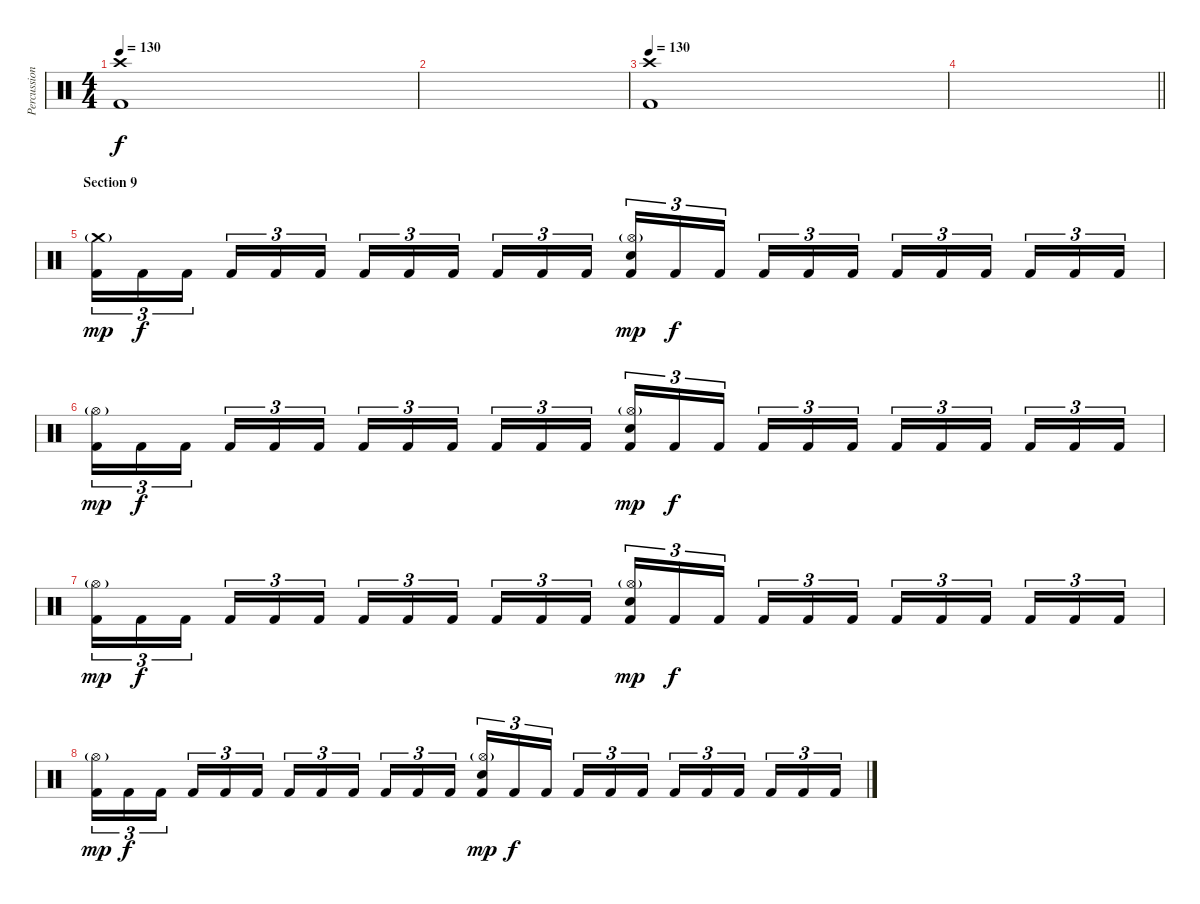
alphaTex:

\track ("Percussions" "Percussion") {instrument percussion}
\staff {score}
\articulation defaults
\ts (4 4)
\tempo 130
\clef neutral
\ks c
("Crash high (hit)" "Kick (hit) 2").1{dy f} |
|
\tempo 130
("Crash high (hit)" "Kick (hit) 2").1 |
\barLineRight lightlight
|
\section ("" "Section 9")
("Crash medium (hit)"{g} "Kick (hit) 2").16{tu (3 2) dy mp} "Kick (hit) 2".16{tu (3 2) dy f} "Kick (hit) 2".16{tu (3 2)} "Kick (hit) 2".16{tu (3 2)} "Kick (hit) 2".16{tu (3 2)} "Kick (hit) 2".16{tu (3 2)} "Kick (hit) 2".16{tu (3 2)} "Kick (hit) 2".16{tu (3 2)} "Kick (hit) 2".16{tu (3 2)} "Kick (hit) 2".16{tu (3 2)} "Kick (hit) 2".16{tu (3 2)} "Kick (hit) 2".16{tu (3 2)} ("Hi-Hat (open)"{g} "Electric Snare (hit)" "Kick (hit) 2").16{tu (3 2) dy mp} "Kick (hit) 2".16{tu (3 2) dy f} "Kick (hit) 2".16{tu (3 2)} "Kick (hit) 2".16{tu (3 2)} "Kick (hit) 2".16{tu (3 2)} "Kick (hit) 2".16{tu (3 2)} "Kick (hit) 2".16{tu (3 2)} "Kick (hit) 2".16{tu (3 2)} "Kick (hit) 2".16{tu (3 2)} "Kick (hit) 2".16{tu (3 2)} "Kick (hit) 2".16{tu (3 2)} "Kick (hit) 2".16{tu (3 2)} |
("Hi-Hat (open)"{g} "Kick (hit) 2").16{tu (3 2) dy mp} "Kick (hit) 2".16{tu (3 2) dy f} "Kick (hit) 2".16{tu (3 2)} "Kick (hit) 2".16{tu (3 2)} "Kick (hit) 2".16{tu (3 2)} "Kick (hit) 2".16{tu (3 2)} "Kick (hit) 2".16{tu (3 2)} "Kick (hit) 2".16{tu (3 2)} "Kick (hit) 2".16{tu (3 2)} "Kick (hit) 2".16{tu (3 2)} "Kick (hit) 2".16{tu (3 2)} "Kick (hit) 2".16{tu (3 2)} ("Hi-Hat (open)"{g} "Electric Snare (hit)" "Kick (hit) 2").16{tu (3 2) dy mp} "Kick (hit) 2".16{tu (3 2) dy f} "Kick (hit) 2".16{tu (3 2)} "Kick (hit) 2".16{tu (3 2)} "Kick (hit) 2".16{tu (3 2)} "Kick (hit) 2".16{tu (3 2)} "Kick (hit) 2".16{tu (3 2)} "Kick (hit) 2".16{tu (3 2)} "Kick (hit) 2".16{tu (3 2)} "Kick (hit) 2".16{tu (3 2)} "Kick (hit) 2".16{tu (3 2)} "Kick (hit) 2".16{tu (3 2)} |
("Hi-Hat (open)"{g} "Kick (hit) 2").16{tu (3 2) dy mp} "Kick (hit) 2".16{tu (3 2) dy f} "Kick (hit) 2".16{tu (3 2)} "Kick (hit) 2".16{tu (3 2)} "Kick (hit) 2".16{tu (3 2)} "Kick (hit) 2".16{tu (3 2)} "Kick (hit) 2".16{tu (3 2)} "Kick (hit) 2".16{tu (3 2)} "Kick (hit) 2".16{tu (3 2)} "Kick (hit) 2".16{tu (3 2)} "Kick (hit) 2".16{tu (3 2)} "Kick (hit) 2".16{tu (3 2)} ("Hi-Hat (open)"{g} "Electric Snare (hit)" "Kick (hit) 2").16{tu (3 2) dy mp} "Kick (hit) 2".16{tu (3 2) dy f} "Kick (hit) 2".16{tu (3 2)} "Kick (hit) 2".16{tu (3 2)} "Kick (hit) 2".16{tu (3 2)} "Kick (hit) 2".16{tu (3 2)} "Kick (hit) 2".16{tu (3 2)} "Kick (hit) 2".16{tu (3 2)} "Kick (hit) 2".16{tu (3 2)} "Kick (hit) 2".16{tu (3 2)} "Kick (hit) 2".16{tu (3 2)} "Kick (hit) 2".16{tu (3 2)} |
("Hi-Hat (open)"{g} "Kick (hit) 2").16{tu (3 2) dy mp} "Kick (hit) 2".16{tu (3 2) dy f} "Kick (hit) 2".16{tu (3 2)} "Kick (hit) 2".16{tu (3 2)} "Kick (hit) 2".16{tu (3 2)} "Kick (hit) 2".16{tu (3 2)} "Kick (hit) 2".16{tu (3 2)} "Kick (hit) 2".16{tu (3 2)} "Kick (hit) 2".16{tu (3 2)} "Kick (hit) 2".16{tu (3 2)} "Kick (hit) 2".16{tu (3 2)} "Kick (hit) 2".16{tu (3 2)} ("Hi-Hat (open)"{g} "Electric Snare (hit)" "Kick (hit) 2").16{tu (3 2) dy mp} "Kick (hit) 2".16{tu (3 2) dy f} "Kick (hit) 2".16{tu (3 2)} "Kick (hit) 2".16{tu (3 2)} "Kick (hit) 2".16{tu (3 2)} "Kick (hit) 2".16{tu (3 2)} "Kick (hit) 2".16{tu (3 2)} "Kick (hit) 2".16{tu (3 2)} "Kick (hit) 2".16{tu (3 2)} "Kick (hit) 2".16{tu (3 2)} "Kick (hit) 2".16{tu (3 2)} "Kick (hit) 2".16{tu (3 2)}
